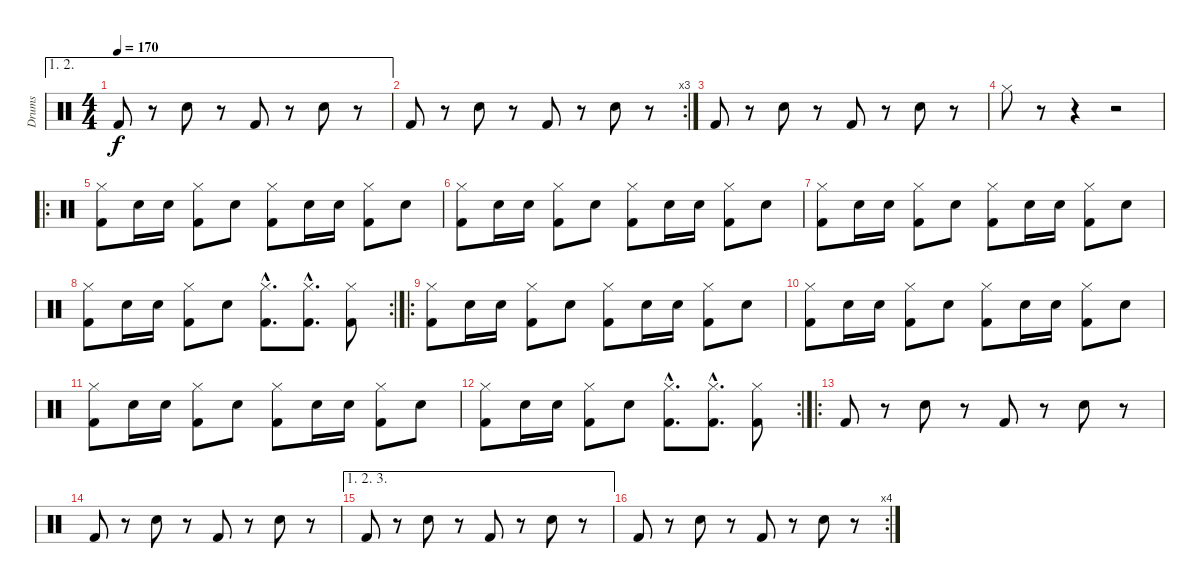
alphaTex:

\track ("Drums" "Drums") {instrument percussion}
\staff {score}
\articulation defaults
\ae (1 2)
\ts (4 4)
\tempo 170
\clef neutral
\ks c "Kick (hit) 2".8{dy f}
r.8 "Electric Snare (hit)".8 r.8 "Kick (hit) 2".8 r.8 "Electric Snare (hit)".8 r.8 |
\rc 3 "Kick (hit) 2".8
r.8 "Electric Snare (hit)".8 r.8 "Kick (hit) 2".8 r.8 "Electric Snare (hit)".8 r.8 |
"Kick (hit) 2".8 r.8 "Electric Snare (hit)".8 r.8 "Kick (hit) 2".8 r.8 "Electric Snare (hit)".8 r.8 |
"Hi-Hat (closed)".8 r.8 r.4 r.2 |
\ro
("Hi-Hat (closed)" "Kick (hit) 2").8 "Electric Snare (hit)".16 "Electric Snare (hit)".16 ("Hi-Hat (closed)" "Kick (hit) 2").8 "Electric Snare (hit)".8 ("Hi-Hat (closed)" "Kick (hit) 2").8 "Electric Snare (hit)".16 "Electric Snare (hit)".16 ("Hi-Hat (closed)" "Kick (hit) 2").8 "Electric Snare (hit)".8 |
("Hi-Hat (closed)" "Kick (hit) 2").8 "Electric Snare (hit)".16 "Electric Snare (hit)".16 ("Hi-Hat (closed)" "Kick (hit) 2").8 "Electric Snare (hit)".8 ("Hi-Hat (closed)" "Kick (hit) 2").8 "Electric Snare (hit)".16 "Electric Snare (hit)".16 ("Hi-Hat (closed)" "Kick (hit) 2").8 "Electric Snare (hit)".8 |
("Hi-Hat (closed)" "Kick (hit) 2").8 "Electric Snare (hit)".16 "Electric Snare (hit)".16 ("Hi-Hat (closed)" "Kick (hit) 2").8 "Electric Snare (hit)".8 ("Hi-Hat (closed)" "Kick (hit) 2").8 "Electric Snare (hit)".16 "Electric Snare (hit)".16 ("Hi-Hat (closed)" "Kick (hit) 2").8 "Electric Snare (hit)".8 |
\rc 2
("Hi-Hat (closed)" "Kick (hit) 2").8 "Electric Snare (hit)".16 "Electric Snare (hit)".16 ("Hi-Hat (closed)" "Kick (hit) 2").8 "Electric Snare (hit)".8 ("Hi-Hat (closed)"{hac} "Kick (hit) 2"{hac}).8{d} ("Hi-Hat (closed)"{hac} "Kick (hit) 2"{hac}).8{d} ("Hi-Hat (closed)" "Kick (hit) 2").8 |
\ro
("Hi-Hat (closed)" "Kick (hit) 2").8 "Electric Snare (hit)".16 "Electric Snare (hit)".16 ("Hi-Hat (closed)" "Kick (hit) 2").8 "Electric Snare (hit)".8 ("Hi-Hat (closed)" "Kick (hit) 2").8 "Electric Snare (hit)".16 "Electric Snare (hit)".16 ("Hi-Hat (closed)" "Kick (hit) 2").8 "Electric Snare (hit)".8 |
("Hi-Hat (closed)" "Kick (hit) 2").8 "Electric Snare (hit)".16 "Electric Snare (hit)".16 ("Hi-Hat (closed)" "Kick (hit) 2").8 "Electric Snare (hit)".8 ("Hi-Hat (closed)" "Kick (hit) 2").8 "Electric Snare (hit)".16 "Electric Snare (hit)".16 ("Hi-Hat (closed)" "Kick (hit) 2").8 "Electric Snare (hit)".8 |
("Hi-Hat (closed)" "Kick (hit) 2").8 "Electric Snare (hit)".16 "Electric Snare (hit)".16 ("Hi-Hat (closed)" "Kick (hit) 2").8 "Electric Snare (hit)".8 ("Hi-Hat (closed)" "Kick (hit) 2").8 "Electric Snare (hit)".16 "Electric Snare (hit)".16 ("Hi-Hat (closed)" "Kick (hit) 2").8 "Electric Snare (hit)".8 |
\rc 2
("Hi-Hat (closed)" "Kick (hit) 2").8 "Electric Snare (hit)".16 "Electric Snare (hit)".16 ("Hi-Hat (closed)" "Kick (hit) 2").8 "Electric Snare (hit)".8 ("Hi-Hat (closed)"{hac} "Kick (hit) 2"{hac}).8{d} ("Hi-Hat (closed)"{hac} "Kick (hit) 2"{hac}).8{d} ("Hi-Hat (closed)" "Kick (hit) 2").8 |
\ro "Kick (hit) 2".8
r.8 "Electric Snare (hit)".8 r.8 "Kick (hit) 2".8 r.8 "Electric Snare (hit)".8 r.8 |
"Kick (hit) 2".8 r.8 "Electric Snare (hit)".8 r.8 "Kick (hit) 2".8 r.8 "Electric Snare (hit)".8 r.8 |
\ae (1 2 3)
"Kick (hit) 2".8 r.8 "Electric Snare (hit)".8 r.8 "Kick (hit) 2".8 r.8 "Electric Snare (hit)".8 r.8 |
\rc 4 "Kick (hit) 2".8
r.8 "Electric Snare (hit)".8 r.8 "Kick (hit) 2".8 r.8 "Electric Snare (hit)".8 r.8
